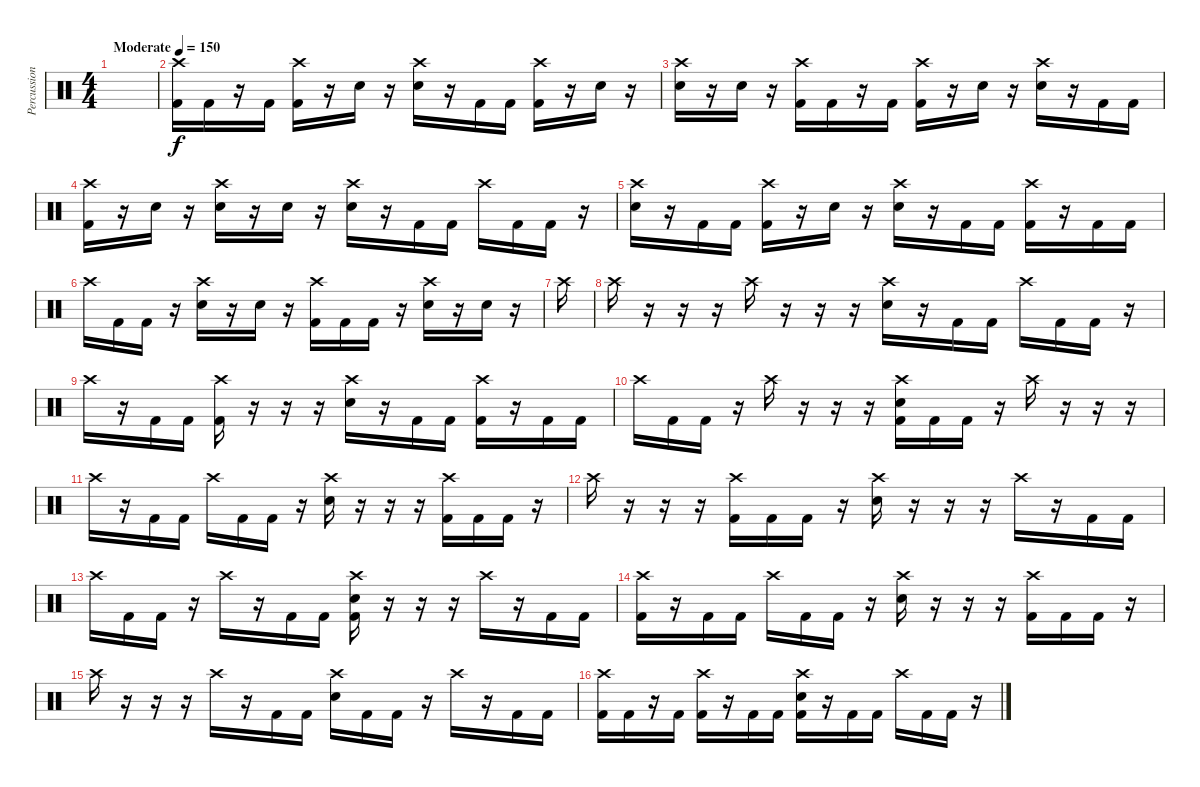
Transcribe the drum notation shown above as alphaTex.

\track ("Percussion" "Percussion") {instrument percussion}
\staff {score}
\articulation defaults
\ts (4 4)
\tempo (150 "Moderate")
\clef neutral
\ks c
|
("Crash high (hit)" "Kick (hit) 2").16 "Kick (hit) 2".16 r.16 "Kick (hit) 2".16 ("Crash high (hit)" "Kick (hit) 2").16 r.16 "Electric Snare (hit)".16 r.16 ("Crash high (hit)" "Electric Snare (hit)").16 r.16 "Kick (hit) 2".16 "Kick (hit) 2".16 ("Crash high (hit)" "Kick (hit) 2").16 r.16 "Electric Snare (hit)".16 r.16 |
("Crash high (hit)" "Electric Snare (hit)").16 r.16 "Electric Snare (hit)".16 r.16 ("Crash high (hit)" "Kick (hit) 2").16 "Kick (hit) 2".16 r.16 "Kick (hit) 2".16 ("Crash high (hit)" "Kick (hit) 2").16 r.16 "Electric Snare (hit)".16 r.16 ("Crash high (hit)" "Electric Snare (hit)").16 r.16 "Kick (hit) 2".16 "Kick (hit) 2".16 |
("Crash high (hit)" "Kick (hit) 2").16 r.16 "Electric Snare (hit)".16 r.16 ("Crash high (hit)" "Electric Snare (hit)").16 r.16 "Electric Snare (hit)".16 r.16 ("Crash high (hit)" "Electric Snare (hit)").16 r.16 "Kick (hit) 2".16 "Kick (hit) 2".16 "Crash high (hit)".16 "Kick (hit) 2".16 "Kick (hit) 2".16 r.16 |
("Crash high (hit)" "Electric Snare (hit)").16 r.16 "Kick (hit) 2".16 "Kick (hit) 2".16 ("Crash high (hit)" "Kick (hit) 2").16 r.16 "Electric Snare (hit)".16 r.16 ("Crash high (hit)" "Electric Snare (hit)").16 r.16 "Kick (hit) 2".16 "Kick (hit) 2".16 ("Crash high (hit)" "Kick (hit) 2").16 r.16 "Kick (hit) 2".16 "Kick (hit) 2".16 |
"Crash high (hit)".16 "Kick (hit) 2".16 "Kick (hit) 2".16 r.16 ("Crash high (hit)" "Electric Snare (hit)").16 r.16 "Electric Snare (hit)".16 r.16 ("Crash high (hit)" "Kick (hit) 2").16 "Kick (hit) 2".16 "Kick (hit) 2".16 r.16 ("Crash high (hit)" "Electric Snare (hit)").16 r.16 "Electric Snare (hit)".16 r.16 |
"Crash high (hit)".16 |
"Crash high (hit)".16 r.16 r.16 r.16 "Crash high (hit)".16 r.16 r.16 r.16 ("Crash high (hit)" "Electric Snare (hit)").16 r.16 "Kick (hit) 2".16 "Kick (hit) 2".16 "Crash high (hit)".16 "Kick (hit) 2".16 "Kick (hit) 2".16 r.16 |
"Crash high (hit)".16 r.16 "Kick (hit) 2".16 "Kick (hit) 2".16 ("Crash high (hit)" "Kick (hit) 2").16 r.16 r.16 r.16 ("Crash high (hit)" "Electric Snare (hit)").16 r.16 "Kick (hit) 2".16 "Kick (hit) 2".16 ("Crash high (hit)" "Kick (hit) 2").16 r.16 "Kick (hit) 2".16 "Kick (hit) 2".16 |
"Crash high (hit)".16 "Kick (hit) 2".16 "Kick (hit) 2".16 r.16 "Crash high (hit)".16 r.16 r.16 r.16 ("Crash high (hit)" "Electric Snare (hit)" "Kick (hit) 2").16 "Kick (hit) 2".16 "Kick (hit) 2".16 r.16 "Crash high (hit)".16 r.16 r.16 r.16 |
"Crash high (hit)".16 r.16 "Kick (hit) 2".16 "Kick (hit) 2".16 "Crash high (hit)".16 "Kick (hit) 2".16 "Kick (hit) 2".16 r.16 ("Crash high (hit)" "Electric Snare (hit)").16 r.16 r.16 r.16 ("Crash high (hit)" "Kick (hit) 2").16 "Kick (hit) 2".16 "Kick (hit) 2".16 r.16 |
"Crash high (hit)".16 r.16 r.16 r.16 ("Crash high (hit)" "Kick (hit) 2").16 "Kick (hit) 2".16 "Kick (hit) 2".16 r.16 ("Crash high (hit)" "Electric Snare (hit)").16 r.16 r.16 r.16 "Crash high (hit)".16 r.16 "Kick (hit) 2".16 "Kick (hit) 2".16 |
"Crash high (hit)".16 "Kick (hit) 2".16 "Kick (hit) 2".16 r.16 "Crash high (hit)".16 r.16 "Kick (hit) 2".16 "Kick (hit) 2".16 ("Crash high (hit)" "Electric Snare (hit)" "Kick (hit) 2").16 r.16 r.16 r.16 "Crash high (hit)".16 r.16 "Kick (hit) 2".16 "Kick (hit) 2".16 |
("Crash high (hit)" "Kick (hit) 2").16 r.16 "Kick (hit) 2".16 "Kick (hit) 2".16 "Crash high (hit)".16 "Kick (hit) 2".16 "Kick (hit) 2".16 r.16 ("Crash high (hit)" "Electric Snare (hit)").16 r.16 r.16 r.16 ("Crash high (hit)" "Kick (hit) 2").16 "Kick (hit) 2".16 "Kick (hit) 2".16 r.16 |
"Crash high (hit)".16 r.16 r.16 r.16 "Crash high (hit)".16 r.16 "Kick (hit) 2".16 "Kick (hit) 2".16 ("Crash high (hit)" "Electric Snare (hit)").16 "Kick (hit) 2".16 "Kick (hit) 2".16 r.16 "Crash high (hit)".16 r.16 "Kick (hit) 2".16 "Kick (hit) 2".16 |
("Crash high (hit)" "Kick (hit) 2").16 "Kick (hit) 2".16 r.16 "Kick (hit) 2".16 ("Crash high (hit)" "Kick (hit) 2").16 r.16 "Kick (hit) 2".16 "Kick (hit) 2".16 ("Crash high (hit)" "Electric Snare (hit)" "Kick (hit) 2").16 r.16 "Kick (hit) 2".16 "Kick (hit) 2".16 "Crash high (hit)".16 "Kick (hit) 2".16 "Kick (hit) 2".16 r.16
